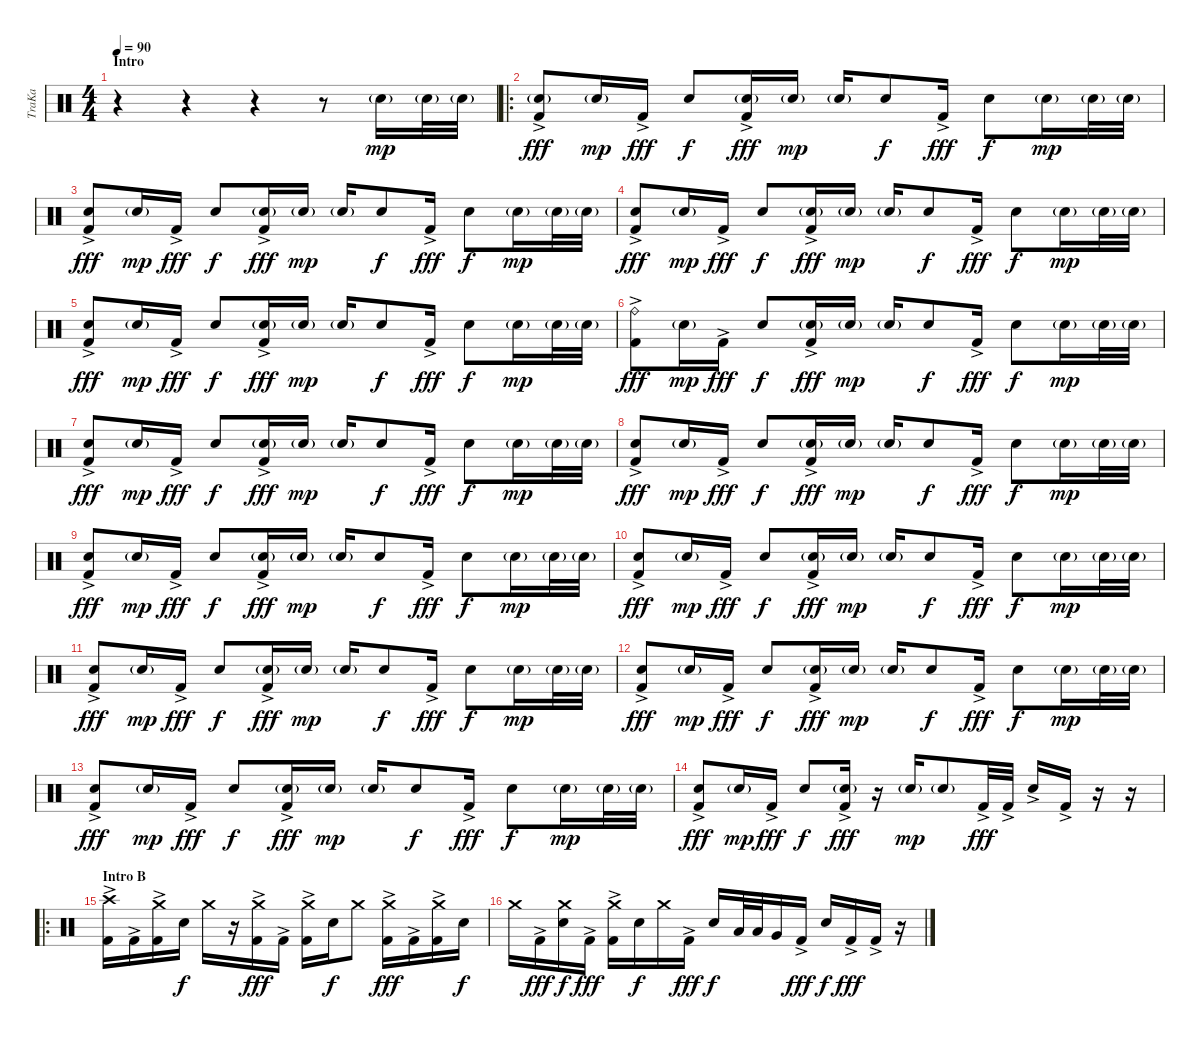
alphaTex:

\track ("TraKa" "TraKa") {instrument percussion}
\staff {score}
\articulation defaults
\ts (4 4)
\section ("" "Intro")
\tempo 90
\clef neutral
\ks c
r.4{dy mp} r.4 r.4 r.8 "Electric Snare (hit)"{g}.16 "Electric Snare (hit)"{g}.32 "Electric Snare (hit)"{g}.32 |
\ro
("Electric Snare (hit)"{g} "Kick (hit) 2"{ac}).8{dy fff} "Electric Snare (hit)"{g}.16{dy mp} "Kick (hit) 2"{ac}.16{dy fff} "Electric Snare (hit)".8{dy f} ("Electric Snare (hit)"{g} "Kick (hit) 2"{ac}).16{dy fff} "Electric Snare (hit)"{g}.16{dy mp} "Electric Snare (hit)"{g}.16 "Electric Snare (hit)".8{dy f} "Kick (hit) 2"{ac}.16{dy fff} "Electric Snare (hit)".8{dy f} "Electric Snare (hit)"{g}.16{dy mp} "Electric Snare (hit)"{g}.32 "Electric Snare (hit)"{g}.32 |
("Electric Snare (hit)" "Kick (hit) 2"{ac}).8{dy fff} "Electric Snare (hit)"{g}.16{dy mp} "Kick (hit) 2"{ac}.16{dy fff} "Electric Snare (hit)".8{dy f} ("Electric Snare (hit)"{g} "Kick (hit) 2"{ac}).16{dy fff} "Electric Snare (hit)"{g}.16{dy mp} "Electric Snare (hit)"{g}.16 "Electric Snare (hit)".8{dy f} "Kick (hit) 2"{ac}.16{dy fff} "Electric Snare (hit)".8{dy f} "Electric Snare (hit)"{g}.16{dy mp} "Electric Snare (hit)"{g}.32 "Electric Snare (hit)"{g}.32 |
("Electric Snare (hit)" "Kick (hit) 2"{ac}).8{dy fff} "Electric Snare (hit)"{g}.16{dy mp} "Kick (hit) 2"{ac}.16{dy fff} "Electric Snare (hit)".8{dy f} ("Electric Snare (hit)"{g} "Kick (hit) 2"{ac}).16{dy fff} "Electric Snare (hit)"{g}.16{dy mp} "Electric Snare (hit)"{g}.16 "Electric Snare (hit)".8{dy f} "Kick (hit) 2"{ac}.16{dy fff} "Electric Snare (hit)".8{dy f} "Electric Snare (hit)"{g}.16{dy mp} "Electric Snare (hit)"{g}.32 "Electric Snare (hit)"{g}.32 |
("Electric Snare (hit)" "Kick (hit) 2"{ac}).8{dy fff} "Electric Snare (hit)"{g}.16{dy mp} "Kick (hit) 2"{ac}.16{dy fff} "Electric Snare (hit)".8{dy f} ("Electric Snare (hit)"{g} "Kick (hit) 2"{ac}).16{dy fff} "Electric Snare (hit)"{g}.16{dy mp} "Electric Snare (hit)"{g}.16 "Electric Snare (hit)".8{dy f} "Kick (hit) 2"{ac}.16{dy fff} "Electric Snare (hit)".8{dy f} "Electric Snare (hit)"{g}.16{dy mp} "Electric Snare (hit)"{g}.32 "Electric Snare (hit)"{g}.32 |
("Ride (bell)" "Kick (hit) 2"{ac}).8{dy fff} "Electric Snare (hit)"{g}.16{dy mp} "Kick (hit) 2"{ac}.16{dy fff} "Electric Snare (hit)".8{dy f} ("Electric Snare (hit)"{g} "Kick (hit) 2"{ac}).16{dy fff} "Electric Snare (hit)"{g}.16{dy mp} "Electric Snare (hit)"{g}.16 "Electric Snare (hit)".8{dy f} "Kick (hit) 2"{ac}.16{dy fff} "Electric Snare (hit)".8{dy f} "Electric Snare (hit)"{g}.16{dy mp} "Electric Snare (hit)"{g}.32 "Electric Snare (hit)"{g}.32 |
("Electric Snare (hit)" "Kick (hit) 2"{ac}).8{dy fff} "Electric Snare (hit)"{g}.16{dy mp} "Kick (hit) 2"{ac}.16{dy fff} "Electric Snare (hit)".8{dy f} ("Electric Snare (hit)"{g} "Kick (hit) 2"{ac}).16{dy fff} "Electric Snare (hit)"{g}.16{dy mp} "Electric Snare (hit)"{g}.16 "Electric Snare (hit)".8{dy f} "Kick (hit) 2"{ac}.16{dy fff} "Electric Snare (hit)".8{dy f} "Electric Snare (hit)"{g}.16{dy mp} "Electric Snare (hit)"{g}.32 "Electric Snare (hit)"{g}.32 |
("Electric Snare (hit)" "Kick (hit) 2"{ac}).8{dy fff} "Electric Snare (hit)"{g}.16{dy mp} "Kick (hit) 2"{ac}.16{dy fff} "Electric Snare (hit)".8{dy f} ("Electric Snare (hit)"{g} "Kick (hit) 2"{ac}).16{dy fff} "Electric Snare (hit)"{g}.16{dy mp} "Electric Snare (hit)"{g}.16 "Electric Snare (hit)".8{dy f} "Kick (hit) 2"{ac}.16{dy fff} "Electric Snare (hit)".8{dy f} "Electric Snare (hit)"{g}.16{dy mp} "Electric Snare (hit)"{g}.32 "Electric Snare (hit)"{g}.32 |
("Electric Snare (hit)" "Kick (hit) 2"{ac}).8{dy fff} "Electric Snare (hit)"{g}.16{dy mp} "Kick (hit) 2"{ac}.16{dy fff} "Electric Snare (hit)".8{dy f} ("Electric Snare (hit)"{g} "Kick (hit) 2"{ac}).16{dy fff} "Electric Snare (hit)"{g}.16{dy mp} "Electric Snare (hit)"{g}.16 "Electric Snare (hit)".8{dy f} "Kick (hit) 2"{ac}.16{dy fff} "Electric Snare (hit)".8{dy f} "Electric Snare (hit)"{g}.16{dy mp} "Electric Snare (hit)"{g}.32 "Electric Snare (hit)"{g}.32 |
("Electric Snare (hit)" "Kick (hit) 2"{ac}).8{dy fff} "Electric Snare (hit)"{g}.16{dy mp} "Kick (hit) 2"{ac}.16{dy fff} "Electric Snare (hit)".8{dy f} ("Electric Snare (hit)"{g} "Kick (hit) 2"{ac}).16{dy fff} "Electric Snare (hit)"{g}.16{dy mp} "Electric Snare (hit)"{g}.16 "Electric Snare (hit)".8{dy f} "Kick (hit) 2"{ac}.16{dy fff} "Electric Snare (hit)".8{dy f} "Electric Snare (hit)"{g}.16{dy mp} "Electric Snare (hit)"{g}.32 "Electric Snare (hit)"{g}.32 |
("Electric Snare (hit)" "Kick (hit) 2"{ac}).8{dy fff} "Electric Snare (hit)"{g}.16{dy mp} "Kick (hit) 2"{ac}.16{dy fff} "Electric Snare (hit)".8{dy f} ("Electric Snare (hit)"{g} "Kick (hit) 2"{ac}).16{dy fff} "Electric Snare (hit)"{g}.16{dy mp} "Electric Snare (hit)"{g}.16 "Electric Snare (hit)".8{dy f} "Kick (hit) 2"{ac}.16{dy fff} "Electric Snare (hit)".8{dy f} "Electric Snare (hit)"{g}.16{dy mp} "Electric Snare (hit)"{g}.32 "Electric Snare (hit)"{g}.32 |
("Electric Snare (hit)" "Kick (hit) 2"{ac}).8{dy fff} "Electric Snare (hit)"{g}.16{dy mp} "Kick (hit) 2"{ac}.16{dy fff} "Electric Snare (hit)".8{dy f} ("Electric Snare (hit)"{g} "Kick (hit) 2"{ac}).16{dy fff} "Electric Snare (hit)"{g}.16{dy mp} "Electric Snare (hit)"{g}.16 "Electric Snare (hit)".8{dy f} "Kick (hit) 2"{ac}.16{dy fff} "Electric Snare (hit)".8{dy f} "Electric Snare (hit)"{g}.16{dy mp} "Electric Snare (hit)"{g}.32 "Electric Snare (hit)"{g}.32 |
("Electric Snare (hit)" "Kick (hit) 2"{ac}).8{dy fff} "Electric Snare (hit)"{g}.16{dy mp} "Kick (hit) 2"{ac}.16{dy fff} "Electric Snare (hit)".8{dy f} ("Electric Snare (hit)"{g} "Kick (hit) 2"{ac}).16{dy fff} "Electric Snare (hit)"{g}.16{dy mp} "Electric Snare (hit)"{g}.16 "Electric Snare (hit)".8{dy f} "Kick (hit) 2"{ac}.16{dy fff} "Electric Snare (hit)".8{dy f} "Electric Snare (hit)"{g}.16{dy mp} "Electric Snare (hit)"{g}.32 "Electric Snare (hit)"{g}.32 |
("Electric Snare (hit)" "Kick (hit) 2"{ac}).8{dy fff} "Electric Snare (hit)"{g}.16{dy mp} "Kick (hit) 2"{ac}.16{dy fff} "Electric Snare (hit)".8{dy f} ("Electric Snare (hit)"{g} "Kick (hit) 2"{ac}).16{dy fff} r.16 "Electric Snare (hit)"{g}.16{dy mp} "Electric Snare (hit)"{g}.8 "Kick (hit) 2"{ac}.32{dy fff} "Kick (hit) 2"{ac}.32 "Electric Snare (hit)"{ac}.16 "Kick (hit) 2"{ac}.16 r.16 r.16 |
\ro
\section ("" "Intro B")
("Crash high (hit)" "Kick (hit) 2"{ac}).16 "Kick (hit) 2"{ac}.16 ("Crash medium (hit)" "Kick (hit) 2"{ac}).16 "Electric Snare (hit)".16{dy f} "Crash medium (hit)".16 r.16 ("Crash medium (hit)" "Kick (hit) 2"{ac}).16{dy fff} "Kick (hit) 2"{ac}.16 ("Crash medium (hit)" "Kick (hit) 2"{ac}).16 "Electric Snare (hit)".16{dy f} "Crash medium (hit)".8 ("Crash medium (hit)" "Kick (hit) 2"{ac}).16{dy fff} "Kick (hit) 2"{ac}.16 ("Crash medium (hit)" "Kick (hit) 2"{ac}).16 "Electric Snare (hit)".16{dy f} |
"Crash medium (hit)".16 "Kick (hit) 2"{ac}.16{dy fff} ("Crash medium (hit)" "Electric Snare (hit)").16{dy f} "Kick (hit) 2"{ac}.16{dy fff} ("Crash medium (hit)" "Kick (hit) 2"{ac}).16 "Electric Snare (hit)".16{dy f} "Crash medium (hit)".16 "Kick (hit) 2"{ac}.16{dy fff} "Electric Snare (hit)".16{dy f} "Low Floor Tom (hit)".32 "Low Tom (hit)".32 "Very Low Tom (hit)".16 "Kick (hit) 2"{ac}.16{dy fff} "Electric Snare (hit)".16{dy f} "Kick (hit) 2"{ac}.16{dy fff} "Kick (hit) 2"{ac}.16 r.16
